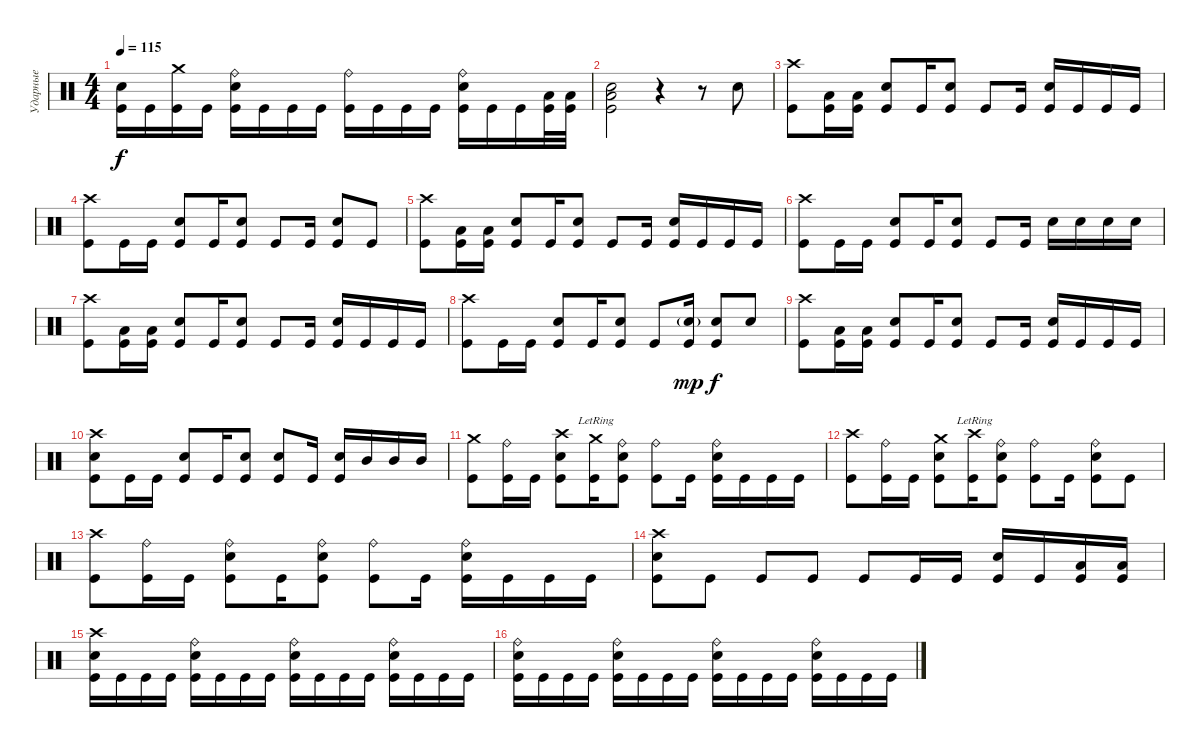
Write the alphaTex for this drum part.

\track ("Ударные" "Ударные") {instrument percussion}
\staff {score}
\articulation defaults
\ts (4 4)
\tempo 115
\clef neutral
\ks c
("Electric Snare (hit)" "Kick (hit)").16{dy f} "Kick (hit)".16 ("Crash medium (hit)" "Kick (hit)").16 "Kick (hit)".16 ("Ride (bell)" "Electric Snare (hit)" "Kick (hit)").16 "Kick (hit)".16 "Kick (hit)".16 "Kick (hit)".16 ("Ride (bell)" "Kick (hit)").16 "Kick (hit)".16 "Kick (hit)".16 "Kick (hit)".16 ("Ride (bell)" "Electric Snare (hit)" "Kick (hit)").16 "Kick (hit)".16 "Kick (hit)".16 ("Low Tom (hit)" "Kick (hit)").32 ("Low Tom (hit)" "Kick (hit)").32 |
("Low Tom (hit)" "Electric Snare (hit)" "Kick (hit)").2 r.4 r.8 "Electric Snare (hit)".8 |
("Crash high (hit)" "Kick (hit)").8 ("Low Tom (hit)" "Kick (hit)").16 ("Low Tom (hit)" "Kick (hit)").16 ("Electric Snare (hit)" "Kick (hit)").8 "Kick (hit)".16 ("Electric Snare (hit)" "Kick (hit)").8 "Kick (hit)".8 "Kick (hit)".16 ("Electric Snare (hit)" "Kick (hit)").16 "Kick (hit)".16 "Kick (hit)".16 "Kick (hit)".16 |
("Crash high (hit)" "Kick (hit)").8 "Kick (hit)".16 "Kick (hit)".16 ("Electric Snare (hit)" "Kick (hit)").8 "Kick (hit)".16 ("Electric Snare (hit)" "Kick (hit)").8 "Kick (hit)".8 "Kick (hit)".16 ("Electric Snare (hit)" "Kick (hit)").8 "Kick (hit)".8 |
("Crash high (hit)" "Kick (hit)").8 ("Low Tom (hit)" "Kick (hit)").16 ("Low Tom (hit)" "Kick (hit)").16 ("Electric Snare (hit)" "Kick (hit)").8 "Kick (hit)".16 ("Electric Snare (hit)" "Kick (hit)").8 "Kick (hit)".8 "Kick (hit)".16 ("Electric Snare (hit)" "Kick (hit)").16 "Kick (hit)".16 "Kick (hit)".16 "Kick (hit)".16 |
("Crash high (hit)" "Kick (hit)").8 "Kick (hit)".16 "Kick (hit)".16 ("Electric Snare (hit)" "Kick (hit)").8 "Kick (hit)".16 ("Electric Snare (hit)" "Kick (hit)").8 "Kick (hit)".8 "Kick (hit)".16 "Electric Snare (hit)".16 "Electric Snare (hit)".16 "Electric Snare (hit)".16 "Electric Snare (hit)".16 |
("Crash high (hit)" "Kick (hit)").8 ("Low Tom (hit)" "Kick (hit)").16 ("Low Tom (hit)" "Kick (hit)").16 ("Electric Snare (hit)" "Kick (hit)").8 "Kick (hit)".16 ("Electric Snare (hit)" "Kick (hit)").8 "Kick (hit)".8 "Kick (hit)".16 ("Electric Snare (hit)" "Kick (hit)").16 "Kick (hit)".16 "Kick (hit)".16 "Kick (hit)".16 |
("Crash high (hit)" "Kick (hit)").8 "Kick (hit)".16 "Kick (hit)".16 ("Electric Snare (hit)" "Kick (hit)").8 "Kick (hit)".16 ("Electric Snare (hit)" "Kick (hit)").8 "Kick (hit)".8 ("Electric Snare (hit)"{g} "Kick (hit)").16{dy mp} ("Electric Snare (hit)" "Kick (hit)").8{dy f} "Electric Snare (hit)".8 |
("Crash high (hit)" "Kick (hit)").8 ("Low Tom (hit)" "Kick (hit)").16 ("Low Tom (hit)" "Kick (hit)").16 ("Electric Snare (hit)" "Kick (hit)").8 "Kick (hit)".16 ("Electric Snare (hit)" "Kick (hit)").8 "Kick (hit)".8 "Kick (hit)".16 ("Electric Snare (hit)" "Kick (hit)").16 "Kick (hit)".16 "Kick (hit)".16 "Kick (hit)".16 |
("Crash high (hit)" "Electric Snare (hit)" "Kick (hit)").8 "Kick (hit)".16 "Kick (hit)".16 ("Electric Snare (hit)" "Kick (hit)").8 "Kick (hit)".16 ("Electric Snare (hit)" "Kick (hit)").8 ("Electric Snare (hit)" "Kick (hit)").8 "Kick (hit)".16 ("Electric Snare (hit)" "Kick (hit)").16 "Mid Tom (hit)".16 "Mid Tom (hit)".16 "Mid Tom (hit)".16 |
("Crash medium (hit)" "Kick (hit)").8 ("Ride (bell)" "Kick (hit)").16 "Kick (hit)".16 ("Crash high (hit)" "Electric Snare (hit)" "Kick (hit)").8 ("Crash medium (hit)"{lr} "Kick (hit)").16 ("Ride (bell)" "Electric Snare (hit)" "Kick (hit)").8 ("Ride (bell)" "Kick (hit)").8 "Kick (hit)".16 ("Ride (bell)" "Electric Snare (hit)" "Kick (hit)").16 "Kick (hit)".16 "Kick (hit)".16 "Kick (hit)".16 |
("Crash high (hit)" "Kick (hit)").8 ("Ride (bell)" "Kick (hit)").16 "Kick (hit)".16 ("Crash medium (hit)" "Electric Snare (hit)" "Kick (hit)").8 ("Crash high (hit)"{lr} "Kick (hit)").16 ("Ride (bell)" "Electric Snare (hit)" "Kick (hit)").8 ("Ride (bell)" "Kick (hit)").8 "Kick (hit)".16 ("Ride (bell)" "Electric Snare (hit)" "Kick (hit)").8 "Kick (hit)".8 |
("Crash high (hit)" "Kick (hit)").8 ("Ride (bell)" "Kick (hit)").16 "Kick (hit)".16 ("Ride (bell)" "Electric Snare (hit)" "Kick (hit)").8 "Kick (hit)".16 ("Ride (bell)" "Electric Snare (hit)" "Kick (hit)").8 ("Ride (bell)" "Kick (hit)").8 "Kick (hit)".16 ("Ride (bell)" "Electric Snare (hit)" "Kick (hit)").16 "Kick (hit)".16 "Kick (hit)".16 "Kick (hit)".16 |
("Crash high (hit)" "Electric Snare (hit)" "Kick (hit)").8 "Kick (hit)".8 "Kick (hit)".8 "Kick (hit)".8 "Kick (hit)".8 "Kick (hit)".16 "Kick (hit)".16 ("Electric Snare (hit)" "Kick (hit)").16 "Kick (hit)".16 ("Low Tom (hit)" "Kick (hit)").16 ("Low Tom (hit)" "Kick (hit)").16 |
("Crash high (hit)" "Electric Snare (hit)" "Kick (hit)").16 "Kick (hit)".16 "Kick (hit)".16 "Kick (hit)".16 ("Ride (bell)" "Electric Snare (hit)" "Kick (hit)").16 "Kick (hit)".16 "Kick (hit)".16 "Kick (hit)".16 ("Ride (bell)" "Electric Snare (hit)" "Kick (hit)").16 "Kick (hit)".16 "Kick (hit)".16 "Kick (hit)".16 ("Ride (bell)" "Electric Snare (hit)" "Kick (hit)").16 "Kick (hit)".16 "Kick (hit)".16 "Kick (hit)".16 |
("Ride (bell)" "Electric Snare (hit)" "Kick (hit)").16 "Kick (hit)".16 "Kick (hit)".16 "Kick (hit)".16 ("Ride (bell)" "Electric Snare (hit)" "Kick (hit)").16 "Kick (hit)".16 "Kick (hit)".16 "Kick (hit)".16 ("Ride (bell)" "Electric Snare (hit)" "Kick (hit)").16 "Kick (hit)".16 "Kick (hit)".16 "Kick (hit)".16 ("Ride (bell)" "Electric Snare (hit)" "Kick (hit)").16 "Kick (hit)".16 "Kick (hit)".16 "Kick (hit)".16
